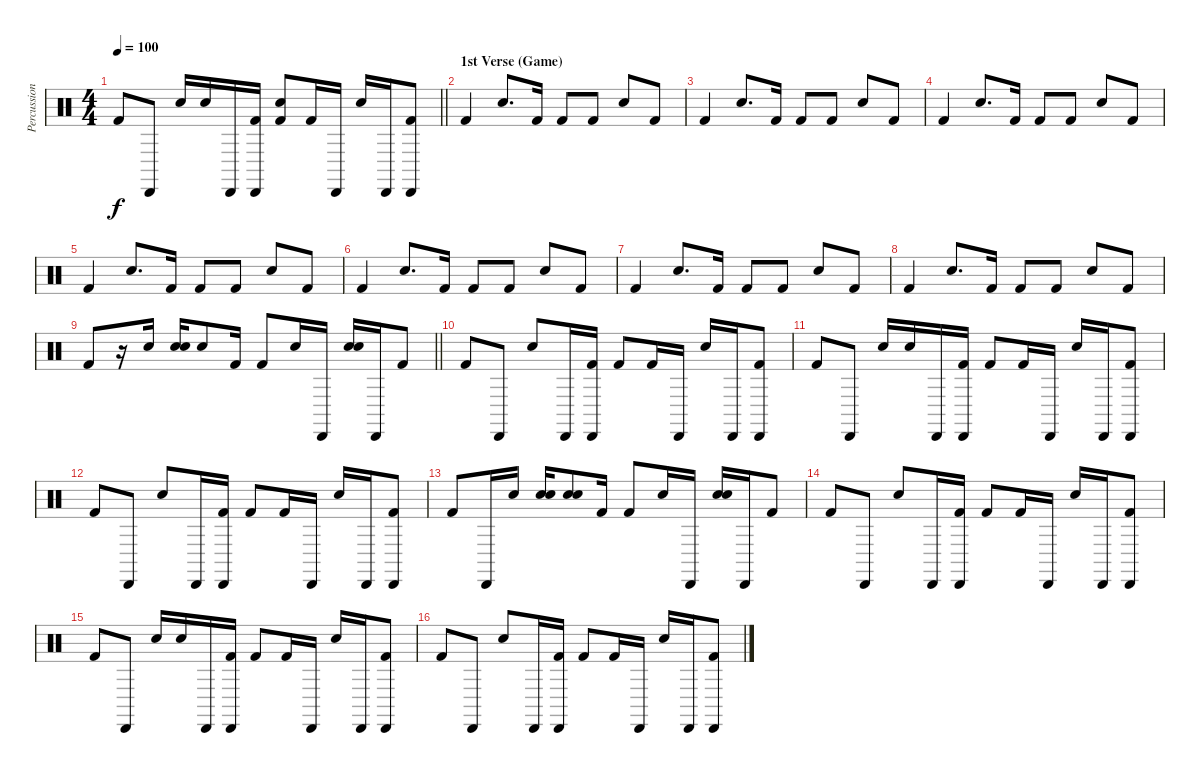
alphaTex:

\track ("Percussion" "Percussion") {instrument percussion}
\staff {score}
\articulation defaults
\ts (4 4)
\tempo 100
\clef neutral
\barLineRight lightlight
\ks c "Kick (hit) 2".8{dy f} "Cabasa (hit)".8 "Hand Clap (hit)".16 "Hand Clap (hit)".16 "Cabasa (hit)".16
("Cabasa (hit)" "Kick (hit) 2").16 ("Hand Clap (hit)" "Kick (hit) 2").8 "Kick (hit) 2".16 "Cabasa (hit)".16 "Hand Clap (hit)".16 "Cabasa (hit)".16 ("Cabasa (hit)" "Kick (hit) 2").8 |
\section ("" "1st Verse (Game)")
"Kick (hit) 2".4 "Hand Clap (hit)".8{d} "Kick (hit) 2".16 "Kick (hit) 2".8 "Kick (hit) 2".8 "Hand Clap (hit)".8 "Kick (hit) 2".8 |
"Kick (hit) 2".4 "Hand Clap (hit)".8{d} "Kick (hit) 2".16 "Kick (hit) 2".8 "Kick (hit) 2".8 "Hand Clap (hit)".8 "Kick (hit) 2".8 |
"Kick (hit) 2".4 "Hand Clap (hit)".8{d} "Kick (hit) 2".16 "Kick (hit) 2".8 "Kick (hit) 2".8 "Hand Clap (hit)".8 "Kick (hit) 2".8 |
"Kick (hit) 2".4 "Hand Clap (hit)".8{d} "Kick (hit) 2".16 "Kick (hit) 2".8 "Kick (hit) 2".8 "Hand Clap (hit)".8 "Kick (hit) 2".8 |
"Kick (hit) 2".4 "Hand Clap (hit)".8{d} "Kick (hit) 2".16 "Kick (hit) 2".8 "Kick (hit) 2".8 "Hand Clap (hit)".8 "Kick (hit) 2".8 |
"Kick (hit) 2".4 "Hand Clap (hit)".8{d} "Kick (hit) 2".16 "Kick (hit) 2".8 "Kick (hit) 2".8 "Hand Clap (hit)".8 "Kick (hit) 2".8 |
"Kick (hit) 2".4 "Hand Clap (hit)".8{d} "Kick (hit) 2".16 "Kick (hit) 2".8 "Kick (hit) 2".8 "Hand Clap (hit)".8 "Kick (hit) 2".8 |
\barLineRight lightlight "Kick (hit) 2".8
r.16 "Snare (hit) 2".16 ("Hand Clap (hit)" "Snare (hit) 2").16 "Snare (hit) 2".8 "Kick (hit) 2".16 "Kick (hit) 2".8 "Snare (hit) 2".16 "Cabasa (hit)".16 ("Hand Clap (hit)" "Snare (hit) 2").16 "Cabasa (hit)".16 "Kick (hit) 2".8 |
"Kick (hit) 2".8 "Cabasa (hit)".8 "Hand Clap (hit)".8 "Cabasa (hit)".16 ("Cabasa (hit)" "Kick (hit) 2").16 "Kick (hit) 2".8 "Kick (hit) 2".16 "Cabasa (hit)".16 "Hand Clap (hit)".16 "Cabasa (hit)".16 ("Cabasa (hit)" "Kick (hit) 2").8 |
"Kick (hit) 2".8 "Cabasa (hit)".8 "Hand Clap (hit)".16 "Hand Clap (hit)".16 "Cabasa (hit)".16 ("Cabasa (hit)" "Kick (hit) 2").16 "Kick (hit) 2".8 "Kick (hit) 2".16 "Cabasa (hit)".16 "Hand Clap (hit)".16 "Cabasa (hit)".16 ("Cabasa (hit)" "Kick (hit) 2").8 |
"Kick (hit) 2".8 "Cabasa (hit)".8 "Hand Clap (hit)".8 "Cabasa (hit)".16 ("Cabasa (hit)" "Kick (hit) 2").16 "Kick (hit) 2".8 "Kick (hit) 2".16 "Cabasa (hit)".16 "Hand Clap (hit)".16 "Cabasa (hit)".16 ("Cabasa (hit)" "Kick (hit) 2").8 |
"Kick (hit) 2".8 "Cabasa (hit)".16 "Snare (hit) 2".16 ("Hand Clap (hit)" "Snare (hit) 2").16 ("Hand Clap (hit)" "Snare (hit) 2").8 "Kick (hit) 2".16 "Kick (hit) 2".8 "Snare (hit) 2".16 "Cabasa (hit)".16 ("Hand Clap (hit)" "Snare (hit) 2").16 "Cabasa (hit)".16 "Kick (hit) 2".8 |
"Kick (hit) 2".8 "Cabasa (hit)".8 "Hand Clap (hit)".8 "Cabasa (hit)".16 ("Cabasa (hit)" "Kick (hit) 2").16 "Kick (hit) 2".8 "Kick (hit) 2".16 "Cabasa (hit)".16 "Hand Clap (hit)".16 "Cabasa (hit)".16 ("Cabasa (hit)" "Kick (hit) 2").8 |
"Kick (hit) 2".8 "Cabasa (hit)".8 "Hand Clap (hit)".16 "Hand Clap (hit)".16 "Cabasa (hit)".16 ("Cabasa (hit)" "Kick (hit) 2").16 "Kick (hit) 2".8 "Kick (hit) 2".16 "Cabasa (hit)".16 "Hand Clap (hit)".16 "Cabasa (hit)".16 ("Cabasa (hit)" "Kick (hit) 2").8 |
"Kick (hit) 2".8 "Cabasa (hit)".8 "Hand Clap (hit)".8 "Cabasa (hit)".16 ("Cabasa (hit)" "Kick (hit) 2").16 "Kick (hit) 2".8 "Kick (hit) 2".16 "Cabasa (hit)".16 "Hand Clap (hit)".16 "Cabasa (hit)".16 ("Cabasa (hit)" "Kick (hit) 2").8
